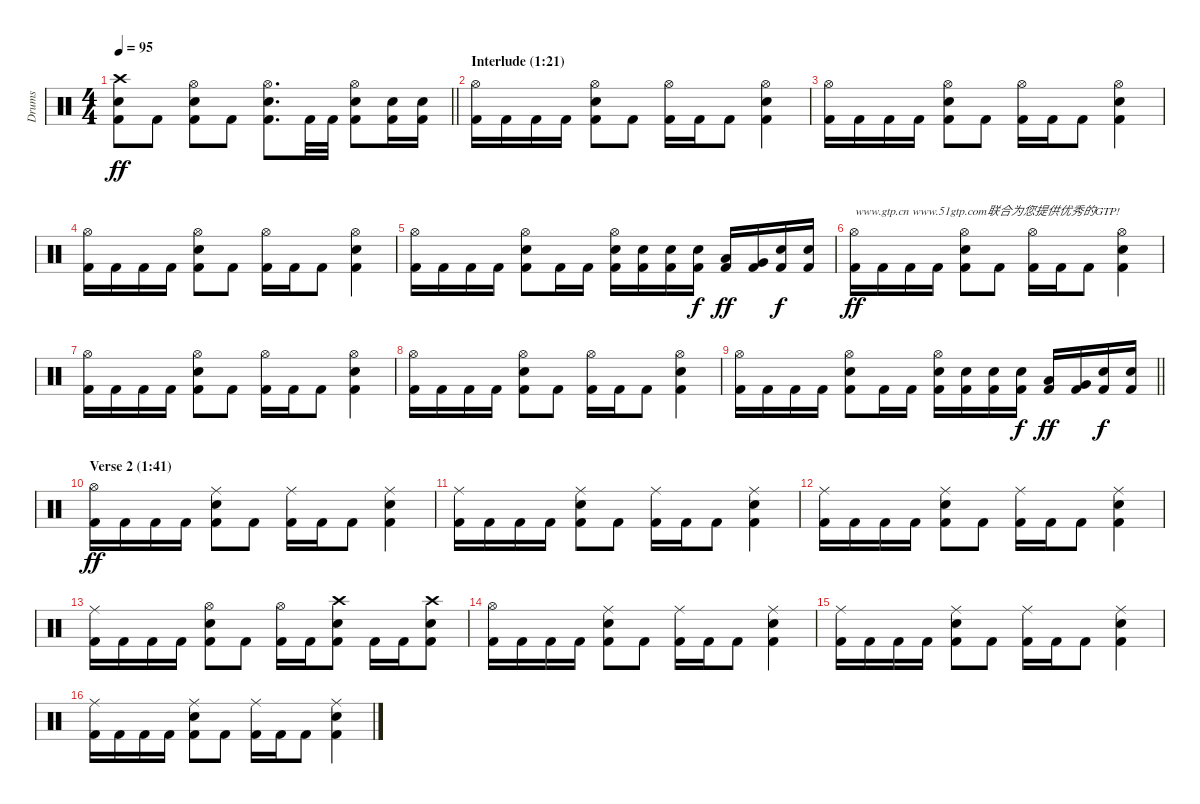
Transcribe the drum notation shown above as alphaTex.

\track ("Drums" "Drums") {instrument percussion}
\staff {score}
\articulation defaults
\ts (4 4)
\tempo 95
\clef neutral
\barLineRight lightlight
\ks c
("Crash high (hit)" "Snare (hit) 2" "Kick (hit) 2").8{dy ff} "Kick (hit) 2".8 ("Hi-Hat (open)" "Snare (hit) 2" "Kick (hit) 2").8 "Kick (hit) 2".8 ("Hi-Hat (open)" "Snare (hit) 2" "Kick (hit) 2").8{d} "Kick (hit) 2".32 "Kick (hit) 2".32 ("Hi-Hat (open)" "Snare (hit) 2" "Kick (hit) 2").8 ("Snare (hit) 2" "Kick (hit) 2").16 ("Snare (hit) 2" "Kick (hit) 2").16 |
\section ("" "Interlude (1:21)")
("Hi-Hat (open)" "Kick (hit) 2").16 "Kick (hit) 2".16 "Kick (hit) 2".16 "Kick (hit) 2".16 ("Hi-Hat (open)" "Snare (hit) 2" "Kick (hit) 2").8 "Kick (hit) 2".8 ("Hi-Hat (open)" "Kick (hit) 2").16 "Kick (hit) 2".16 "Kick (hit) 2".8 ("Hi-Hat (open)" "Snare (hit) 2" "Kick (hit) 2").4 |
("Hi-Hat (open)" "Kick (hit) 2").16 "Kick (hit) 2".16 "Kick (hit) 2".16 "Kick (hit) 2".16 ("Hi-Hat (open)" "Snare (hit) 2" "Kick (hit) 2").8 "Kick (hit) 2".8 ("Hi-Hat (open)" "Kick (hit) 2").16 "Kick (hit) 2".16 "Kick (hit) 2".8 ("Hi-Hat (open)" "Snare (hit) 2" "Kick (hit) 2").4 |
("Hi-Hat (open)" "Kick (hit) 2").16 "Kick (hit) 2".16 "Kick (hit) 2".16 "Kick (hit) 2".16 ("Hi-Hat (open)" "Snare (hit) 2" "Kick (hit) 2").8 "Kick (hit) 2".8 ("Hi-Hat (open)" "Kick (hit) 2").16 "Kick (hit) 2".16 "Kick (hit) 2".8 ("Hi-Hat (open)" "Snare (hit) 2" "Kick (hit) 2").4 |
("Hi-Hat (open)" "Kick (hit) 2").16 "Kick (hit) 2".16 "Kick (hit) 2".16 "Kick (hit) 2".16 ("Hi-Hat (open)" "Snare (hit) 2" "Kick (hit) 2").8 "Kick (hit) 2".16 "Kick (hit) 2".16 ("Hi-Hat (open)" "Snare (hit) 2" "Kick (hit) 2").16 ("Snare (hit) 2" "Kick (hit) 2").16 ("Snare (hit) 2" "Kick (hit) 2").16 ("Snare (hit) 2" "Kick (hit) 2").16{dy f} ("Low Tom (hit)" "Kick (hit) 2").16{dy ff} ("Very Low Tom (hit)" "Kick (hit) 2").16 ("Snare (hit) 2" "Kick (hit) 2").16{dy f} ("Snare (hit) 2" "Kick (hit) 2").16 |
("Hi-Hat (open)" "Kick (hit) 2").16{txt "www.gtp.cn www.51gtp.com联合为您提供优秀的GTP!" dy ff} "Kick (hit) 2".16 "Kick (hit) 2".16 "Kick (hit) 2".16 ("Hi-Hat (open)" "Snare (hit) 2" "Kick (hit) 2").8 "Kick (hit) 2".8 ("Hi-Hat (open)" "Kick (hit) 2").16 "Kick (hit) 2".16 "Kick (hit) 2".8 ("Hi-Hat (open)" "Snare (hit) 2" "Kick (hit) 2").4 |
("Hi-Hat (open)" "Kick (hit) 2").16 "Kick (hit) 2".16 "Kick (hit) 2".16 "Kick (hit) 2".16 ("Hi-Hat (open)" "Snare (hit) 2" "Kick (hit) 2").8 "Kick (hit) 2".8 ("Hi-Hat (open)" "Kick (hit) 2").16 "Kick (hit) 2".16 "Kick (hit) 2".8 ("Hi-Hat (open)" "Snare (hit) 2" "Kick (hit) 2").4 |
("Hi-Hat (open)" "Kick (hit) 2").16 "Kick (hit) 2".16 "Kick (hit) 2".16 "Kick (hit) 2".16 ("Hi-Hat (open)" "Snare (hit) 2" "Kick (hit) 2").8 "Kick (hit) 2".8 ("Hi-Hat (open)" "Kick (hit) 2").16 "Kick (hit) 2".16 "Kick (hit) 2".8 ("Hi-Hat (open)" "Snare (hit) 2" "Kick (hit) 2").4 |
\barLineRight lightlight
("Hi-Hat (open)" "Kick (hit) 2").16 "Kick (hit) 2".16 "Kick (hit) 2".16 "Kick (hit) 2".16 ("Hi-Hat (open)" "Snare (hit) 2" "Kick (hit) 2").8 "Kick (hit) 2".16 "Kick (hit) 2".16 ("Hi-Hat (open)" "Snare (hit) 2" "Kick (hit) 2").16 ("Snare (hit) 2" "Kick (hit) 2").16 ("Snare (hit) 2" "Kick (hit) 2").16 ("Snare (hit) 2" "Kick (hit) 2").16{dy f} ("Low Tom (hit)" "Kick (hit) 2").16{dy ff} ("Very Low Tom (hit)" "Kick (hit) 2").16 ("Snare (hit) 2" "Kick (hit) 2").16{dy f} ("Snare (hit) 2" "Kick (hit) 2").16 |
\section ("" "Verse 2 (1:41)")
("Hi-Hat (open)" "Kick (hit) 2").16{dy ff} "Kick (hit) 2".16 "Kick (hit) 2".16 "Kick (hit) 2".16 ("Ride (middle)" "Snare (hit) 2" "Kick (hit) 2").8 "Kick (hit) 2".8 ("Ride (middle)" "Kick (hit) 2").16 "Kick (hit) 2".16 "Kick (hit) 2".8 ("Ride (middle)" "Snare (hit) 2" "Kick (hit) 2").4 |
("Ride (middle)" "Kick (hit) 2").16 "Kick (hit) 2".16 "Kick (hit) 2".16 "Kick (hit) 2".16 ("Ride (middle)" "Snare (hit) 2" "Kick (hit) 2").8 "Kick (hit) 2".8 ("Ride (middle)" "Kick (hit) 2").16 "Kick (hit) 2".16 "Kick (hit) 2".8 ("Ride (middle)" "Snare (hit) 2" "Kick (hit) 2").4 |
("Ride (middle)" "Kick (hit) 2").16 "Kick (hit) 2".16 "Kick (hit) 2".16 "Kick (hit) 2".16 ("Ride (middle)" "Snare (hit) 2" "Kick (hit) 2").8 "Kick (hit) 2".8 ("Ride (middle)" "Kick (hit) 2").16 "Kick (hit) 2".16 "Kick (hit) 2".8 ("Ride (middle)" "Snare (hit) 2" "Kick (hit) 2").4 |
("Ride (middle)" "Kick (hit) 2").16 "Kick (hit) 2".16 "Kick (hit) 2".16 "Kick (hit) 2".16 ("Hi-Hat (open)" "Snare (hit) 2" "Kick (hit) 2").8 "Kick (hit) 2".8 ("Hi-Hat (open)" "Kick (hit) 2").16 "Kick (hit) 2".16 ("Crash high (hit)" "Snare (hit) 2" "Kick (hit) 2").8 "Kick (hit) 2".16 "Kick (hit) 2".16 ("Crash high (hit)" "Snare (hit) 2" "Kick (hit) 2").8 |
("Hi-Hat (open)" "Kick (hit) 2").16 "Kick (hit) 2".16 "Kick (hit) 2".16 "Kick (hit) 2".16 ("Ride (middle)" "Snare (hit) 2" "Kick (hit) 2").8 "Kick (hit) 2".8 ("Ride (middle)" "Kick (hit) 2").16 "Kick (hit) 2".16 "Kick (hit) 2".8 ("Ride (middle)" "Snare (hit) 2" "Kick (hit) 2").4 |
("Ride (middle)" "Kick (hit) 2").16 "Kick (hit) 2".16 "Kick (hit) 2".16 "Kick (hit) 2".16 ("Ride (middle)" "Snare (hit) 2" "Kick (hit) 2").8 "Kick (hit) 2".8 ("Ride (middle)" "Kick (hit) 2").16 "Kick (hit) 2".16 "Kick (hit) 2".8 ("Ride (middle)" "Snare (hit) 2" "Kick (hit) 2").4 |
("Ride (middle)" "Kick (hit) 2").16 "Kick (hit) 2".16 "Kick (hit) 2".16 "Kick (hit) 2".16 ("Ride (middle)" "Snare (hit) 2" "Kick (hit) 2").8 "Kick (hit) 2".8 ("Ride (middle)" "Kick (hit) 2").16 "Kick (hit) 2".16 "Kick (hit) 2".8 ("Ride (middle)" "Snare (hit) 2" "Kick (hit) 2").4
